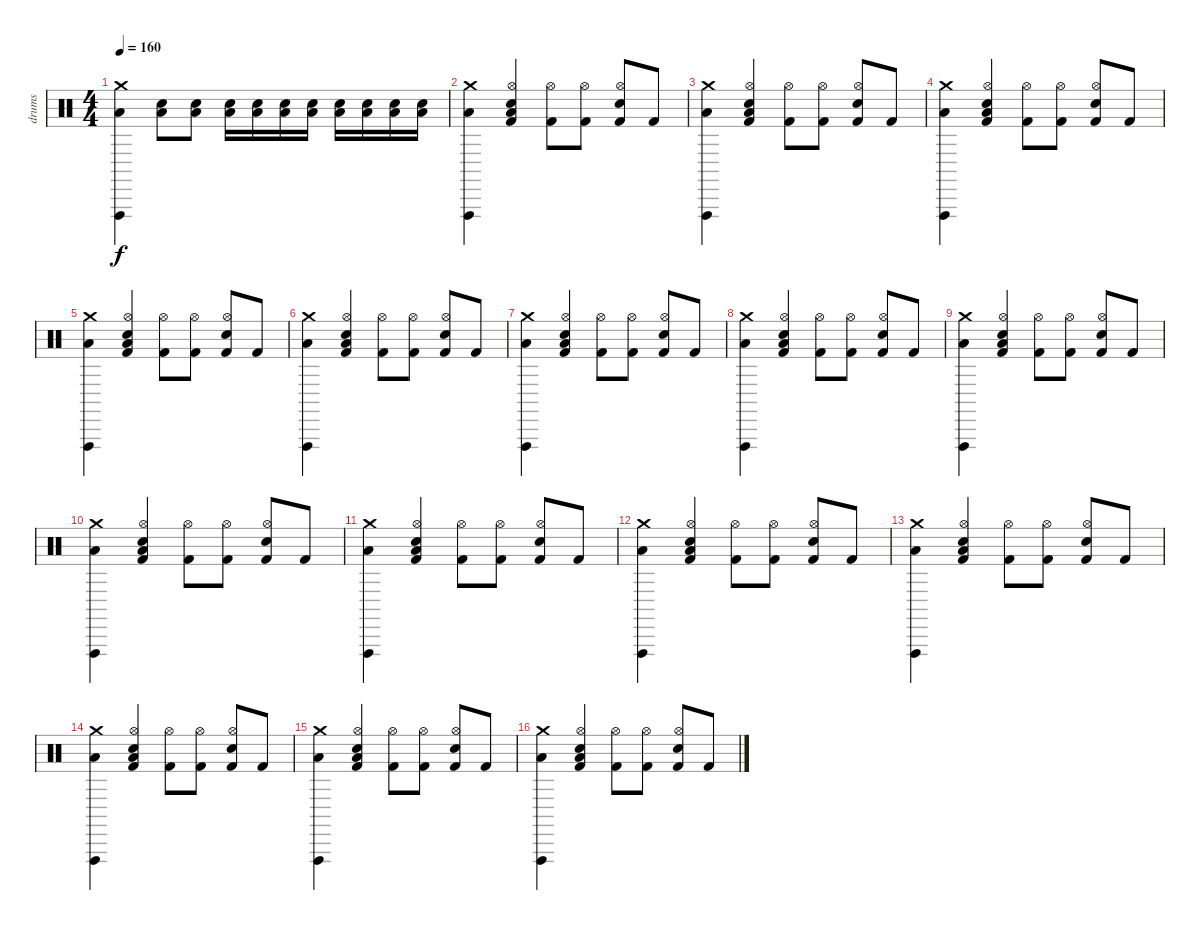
\track ("drums" "drums") {instrument percussion}
\staff {score}
\articulation defaults
\ts (4 4)
\tempo 160
\clef neutral
\ks c
("Crash medium (hit)" "Vibraslap (hit)" "Low Floor Tom (hit)").4{dy f} ("Electric Snare (hit)" "Low Floor Tom (hit)").8 ("Electric Snare (hit)" "Low Floor Tom (hit)").8 ("Electric Snare (hit)" "Low Floor Tom (hit)").16 ("Electric Snare (hit)" "Low Floor Tom (hit)").16 ("Electric Snare (hit)" "Low Floor Tom (hit)").16 ("Electric Snare (hit)" "Low Floor Tom (hit)").16 ("Electric Snare (hit)" "Low Floor Tom (hit)").16 ("Electric Snare (hit)" "Low Floor Tom (hit)").16 ("Electric Snare (hit)" "Low Floor Tom (hit)").16 ("Electric Snare (hit)" "Low Floor Tom (hit)").16 |
("Crash medium (hit)" "Vibraslap (hit)" "Low Floor Tom (hit)").4 ("Hi-Hat (open)" "Electric Snare (hit)" "Low Floor Tom (hit)" "Kick (hit) 2").4 ("Hi-Hat (open)" "Kick (hit) 2").8 ("Hi-Hat (open)" "Kick (hit) 2").8 ("Hi-Hat (open)" "Electric Snare (hit)" "Kick (hit) 2").8 "Kick (hit) 2".8 |
("Crash medium (hit)" "Vibraslap (hit)" "Low Floor Tom (hit)").4 ("Hi-Hat (open)" "Electric Snare (hit)" "Low Floor Tom (hit)" "Kick (hit) 2").4 ("Hi-Hat (open)" "Kick (hit) 2").8 ("Hi-Hat (open)" "Kick (hit) 2").8 ("Hi-Hat (open)" "Electric Snare (hit)" "Kick (hit) 2").8 "Kick (hit) 2".8 |
("Crash medium (hit)" "Vibraslap (hit)" "Low Floor Tom (hit)").4 ("Hi-Hat (open)" "Electric Snare (hit)" "Low Floor Tom (hit)" "Kick (hit) 2").4 ("Hi-Hat (open)" "Kick (hit) 2").8 ("Hi-Hat (open)" "Kick (hit) 2").8 ("Hi-Hat (open)" "Electric Snare (hit)" "Kick (hit) 2").8 "Kick (hit) 2".8 |
("Crash medium (hit)" "Vibraslap (hit)" "Low Floor Tom (hit)").4 ("Hi-Hat (open)" "Electric Snare (hit)" "Low Floor Tom (hit)" "Kick (hit) 2").4 ("Hi-Hat (open)" "Kick (hit) 2").8 ("Hi-Hat (open)" "Kick (hit) 2").8 ("Hi-Hat (open)" "Electric Snare (hit)" "Kick (hit) 2").8 "Kick (hit) 2".8 |
("Crash medium (hit)" "Vibraslap (hit)" "Low Floor Tom (hit)").4 ("Hi-Hat (open)" "Electric Snare (hit)" "Low Floor Tom (hit)" "Kick (hit) 2").4 ("Hi-Hat (open)" "Kick (hit) 2").8 ("Hi-Hat (open)" "Kick (hit) 2").8 ("Hi-Hat (open)" "Electric Snare (hit)" "Kick (hit) 2").8 "Kick (hit) 2".8 |
("Crash medium (hit)" "Vibraslap (hit)" "Low Floor Tom (hit)").4 ("Hi-Hat (open)" "Electric Snare (hit)" "Low Floor Tom (hit)" "Kick (hit) 2").4 ("Hi-Hat (open)" "Kick (hit) 2").8 ("Hi-Hat (open)" "Kick (hit) 2").8 ("Hi-Hat (open)" "Electric Snare (hit)" "Kick (hit) 2").8 "Kick (hit) 2".8 |
("Crash medium (hit)" "Vibraslap (hit)" "Low Floor Tom (hit)").4 ("Hi-Hat (open)" "Electric Snare (hit)" "Low Floor Tom (hit)" "Kick (hit) 2").4 ("Hi-Hat (open)" "Kick (hit) 2").8 ("Hi-Hat (open)" "Kick (hit) 2").8 ("Hi-Hat (open)" "Electric Snare (hit)" "Kick (hit) 2").8 "Kick (hit) 2".8 |
("Crash medium (hit)" "Vibraslap (hit)" "Low Floor Tom (hit)").4 ("Hi-Hat (open)" "Electric Snare (hit)" "Low Floor Tom (hit)" "Kick (hit) 2").4 ("Hi-Hat (open)" "Kick (hit) 2").8 ("Hi-Hat (open)" "Kick (hit) 2").8 ("Hi-Hat (open)" "Electric Snare (hit)" "Kick (hit) 2").8 "Kick (hit) 2".8 |
("Crash medium (hit)" "Vibraslap (hit)" "Low Floor Tom (hit)").4 ("Hi-Hat (open)" "Electric Snare (hit)" "Low Floor Tom (hit)" "Kick (hit) 2").4 ("Hi-Hat (open)" "Kick (hit) 2").8 ("Hi-Hat (open)" "Kick (hit) 2").8 ("Hi-Hat (open)" "Electric Snare (hit)" "Kick (hit) 2").8 "Kick (hit) 2".8 |
("Crash medium (hit)" "Vibraslap (hit)" "Low Floor Tom (hit)").4 ("Hi-Hat (open)" "Electric Snare (hit)" "Low Floor Tom (hit)" "Kick (hit) 2").4 ("Hi-Hat (open)" "Kick (hit) 2").8 ("Hi-Hat (open)" "Kick (hit) 2").8 ("Hi-Hat (open)" "Electric Snare (hit)" "Kick (hit) 2").8 "Kick (hit) 2".8 |
("Crash medium (hit)" "Vibraslap (hit)" "Low Floor Tom (hit)").4 ("Hi-Hat (open)" "Electric Snare (hit)" "Low Floor Tom (hit)" "Kick (hit) 2").4 ("Hi-Hat (open)" "Kick (hit) 2").8 ("Hi-Hat (open)" "Kick (hit) 2").8 ("Hi-Hat (open)" "Electric Snare (hit)" "Kick (hit) 2").8 "Kick (hit) 2".8 |
("Crash medium (hit)" "Vibraslap (hit)" "Low Floor Tom (hit)").4 ("Hi-Hat (open)" "Electric Snare (hit)" "Low Floor Tom (hit)" "Kick (hit) 2").4 ("Hi-Hat (open)" "Kick (hit) 2").8 ("Hi-Hat (open)" "Kick (hit) 2").8 ("Hi-Hat (open)" "Electric Snare (hit)" "Kick (hit) 2").8 "Kick (hit) 2".8 |
("Crash medium (hit)" "Vibraslap (hit)" "Low Floor Tom (hit)").4 ("Hi-Hat (open)" "Electric Snare (hit)" "Low Floor Tom (hit)" "Kick (hit) 2").4 ("Hi-Hat (open)" "Kick (hit) 2").8 ("Hi-Hat (open)" "Kick (hit) 2").8 ("Hi-Hat (open)" "Electric Snare (hit)" "Kick (hit) 2").8 "Kick (hit) 2".8 |
("Crash medium (hit)" "Vibraslap (hit)" "Low Floor Tom (hit)").4 ("Hi-Hat (open)" "Electric Snare (hit)" "Low Floor Tom (hit)" "Kick (hit) 2").4 ("Hi-Hat (open)" "Kick (hit) 2").8 ("Hi-Hat (open)" "Kick (hit) 2").8 ("Hi-Hat (open)" "Electric Snare (hit)" "Kick (hit) 2").8 "Kick (hit) 2".8 |
("Crash medium (hit)" "Vibraslap (hit)" "Low Floor Tom (hit)").4 ("Hi-Hat (open)" "Electric Snare (hit)" "Low Floor Tom (hit)" "Kick (hit) 2").4 ("Hi-Hat (open)" "Kick (hit) 2").8 ("Hi-Hat (open)" "Kick (hit) 2").8 ("Hi-Hat (open)" "Electric Snare (hit)" "Kick (hit) 2").8 "Kick (hit) 2".8
